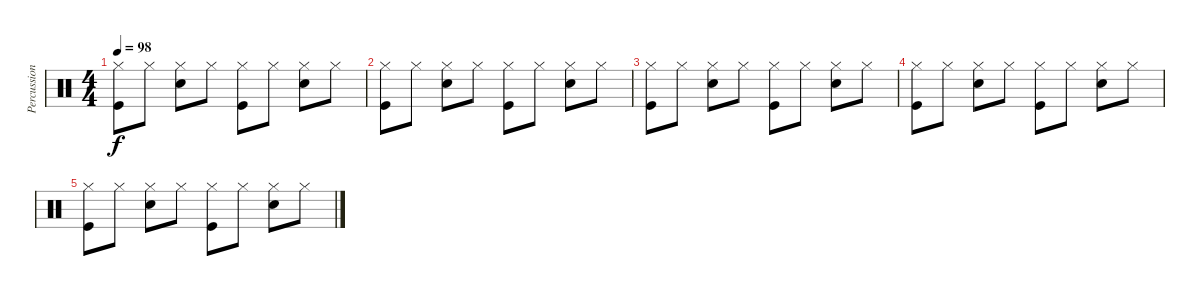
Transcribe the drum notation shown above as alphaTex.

\track ("Percussions" "Percussion") {instrument percussion}
\staff {score}
\articulation defaults
\ts (4 4)
\tempo 98
\clef neutral
\ks c
("Hi-Hat (closed)" "Kick (hit)").8{dy f} "Hi-Hat (closed)".8 ("Hi-Hat (closed)" "Snare (hit) 2").8 "Hi-Hat (closed)".8 ("Hi-Hat (closed)" "Kick (hit)").8 "Hi-Hat (closed)".8 ("Hi-Hat (closed)" "Snare (hit) 2").8 "Hi-Hat (closed)".8 |
("Hi-Hat (closed)" "Kick (hit)").8 "Hi-Hat (closed)".8 ("Hi-Hat (closed)" "Snare (hit) 2").8 "Hi-Hat (closed)".8 ("Hi-Hat (closed)" "Kick (hit)").8 "Hi-Hat (closed)".8 ("Hi-Hat (closed)" "Snare (hit) 2").8 "Hi-Hat (closed)".8 |
("Hi-Hat (closed)" "Kick (hit)").8 "Hi-Hat (closed)".8 ("Hi-Hat (closed)" "Snare (hit) 2").8 "Hi-Hat (closed)".8 ("Hi-Hat (closed)" "Kick (hit)").8 "Hi-Hat (closed)".8 ("Hi-Hat (closed)" "Snare (hit) 2").8 "Hi-Hat (closed)".8 |
("Hi-Hat (closed)" "Kick (hit)").8 "Hi-Hat (closed)".8 ("Hi-Hat (closed)" "Snare (hit) 2").8 "Hi-Hat (closed)".8 ("Hi-Hat (closed)" "Kick (hit)").8 "Hi-Hat (closed)".8 ("Hi-Hat (closed)" "Snare (hit) 2").8 "Hi-Hat (closed)".8 |
("Hi-Hat (closed)" "Kick (hit)").8 "Hi-Hat (closed)".8 ("Hi-Hat (closed)" "Snare (hit) 2").8 "Hi-Hat (closed)".8 ("Hi-Hat (closed)" "Kick (hit)").8 "Hi-Hat (closed)".8 ("Hi-Hat (closed)" "Snare (hit) 2").8 "Hi-Hat (closed)".8
